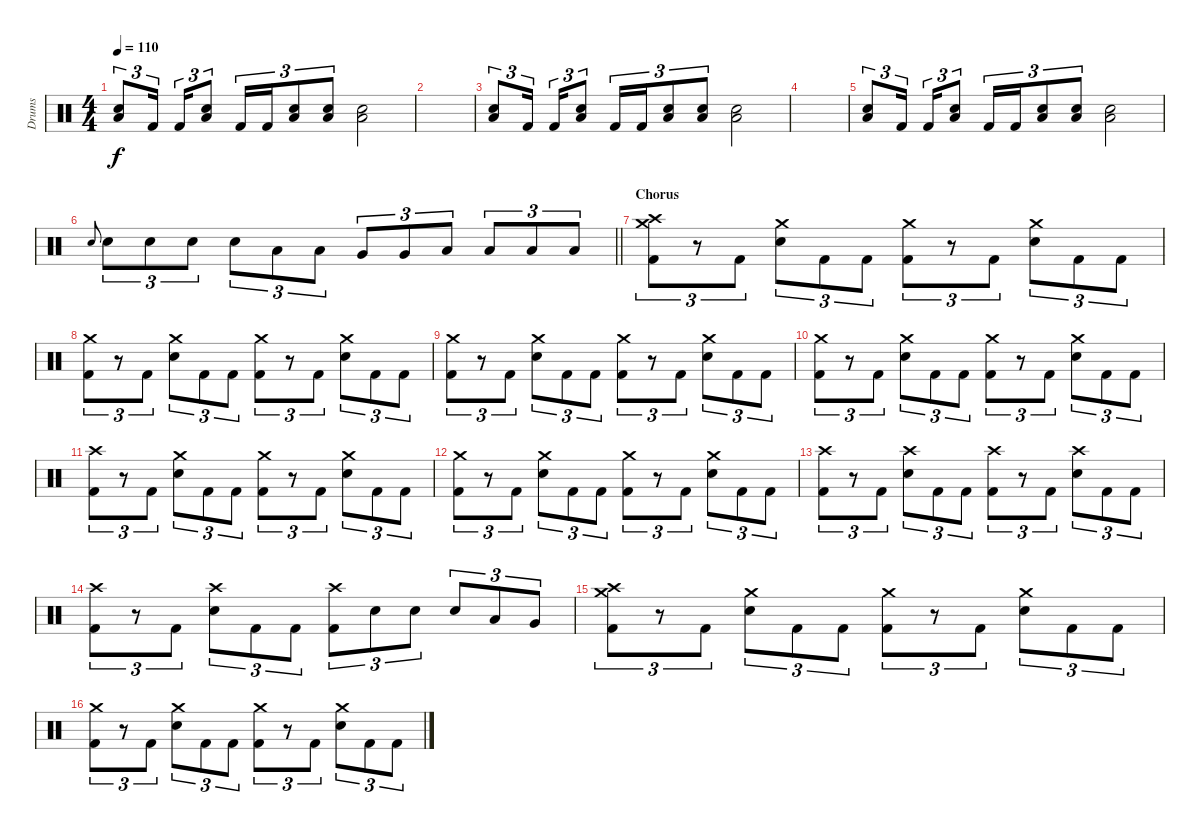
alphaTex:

\track ("Drums" "Drums") {instrument percussion}
\staff {score}
\articulation defaults
\ts (4 4)
\tempo 110
\clef neutral
\ks c
("Low Floor Tom (hit)" "Electric Snare (hit)").8{tu (3 2) dy f} "Kick (hit) 2".16{tu (3 2) beam splitsecondary} "Kick (hit) 2".16{tu (3 2)} ("Low Floor Tom (hit)" "Electric Snare (hit)").8{tu (3 2)} "Kick (hit) 2".16{tu (3 2)} "Kick (hit) 2".16{tu (3 2)} ("Low Floor Tom (hit)" "Electric Snare (hit)").8{tu (3 2)} ("Low Floor Tom (hit)" "Electric Snare (hit)").8{tu (3 2)} ("Low Floor Tom (hit)" "Electric Snare (hit)").2 |
|
("Low Floor Tom (hit)" "Electric Snare (hit)").8{tu (3 2)} "Kick (hit) 2".16{tu (3 2) beam splitsecondary} "Kick (hit) 2".16{tu (3 2)} ("Low Floor Tom (hit)" "Electric Snare (hit)").8{tu (3 2)} "Kick (hit) 2".16{tu (3 2)} "Kick (hit) 2".16{tu (3 2)} ("Low Floor Tom (hit)" "Electric Snare (hit)").8{tu (3 2)} ("Low Floor Tom (hit)" "Electric Snare (hit)").8{tu (3 2)} ("Low Floor Tom (hit)" "Electric Snare (hit)").2 |
|
("Low Floor Tom (hit)" "Electric Snare (hit)").8{tu (3 2)} "Kick (hit) 2".16{tu (3 2) beam splitsecondary} "Kick (hit) 2".16{tu (3 2)} ("Low Floor Tom (hit)" "Electric Snare (hit)").8{tu (3 2)} "Kick (hit) 2".16{tu (3 2)} "Kick (hit) 2".16{tu (3 2)} ("Low Floor Tom (hit)" "Electric Snare (hit)").8{tu (3 2)} ("Low Floor Tom (hit)" "Electric Snare (hit)").8{tu (3 2)} ("Low Floor Tom (hit)" "Electric Snare (hit)").2 |
\barLineRight lightlight "Electric Snare (hit)".8{gr onbeat} "Electric Snare (hit)".8{tu (3 2)} "Electric Snare (hit)".8{tu (3 2)} "Electric Snare (hit)".8{tu (3 2)} "Electric Snare (hit)".8{tu (3 2)} "Low Tom (hit)".8{tu (3 2)} "Low Tom (hit)".8{tu (3 2)} "Very Low Tom (hit)".8{tu (3 2)} "Very Low Tom (hit)".8{tu (3 2)} "Low Floor Tom (hit)".8{tu (3 2)} "Low Floor Tom (hit)".8{tu (3 2)} "Low Floor Tom (hit)".8{tu (3 2)} "Low Floor Tom (hit)".8{tu (3 2)}
|
\section ("" "Chorus")
("Crash medium (hit)" "Crash high (hit)" "Kick (hit) 2").8{tu (3 2)} r.8{tu (3 2)} "Kick (hit) 2".8{tu (3 2)} ("Crash medium (hit)" "Electric Snare (hit)").8{tu (3 2)} "Kick (hit) 2".8{tu (3 2)} "Kick (hit) 2".8{tu (3 2)} ("Crash medium (hit)" "Kick (hit) 2").8{tu (3 2)} r.8{tu (3 2)} "Kick (hit) 2".8{tu (3 2)} ("Crash medium (hit)" "Electric Snare (hit)").8{tu (3 2)} "Kick (hit) 2".8{tu (3 2)} "Kick (hit) 2".8{tu (3 2)} |
("Crash medium (hit)" "Kick (hit) 2").8{tu (3 2)} r.8{tu (3 2)} "Kick (hit) 2".8{tu (3 2)} ("Crash medium (hit)" "Electric Snare (hit)").8{tu (3 2)} "Kick (hit) 2".8{tu (3 2)} "Kick (hit) 2".8{tu (3 2)} ("Crash medium (hit)" "Kick (hit) 2").8{tu (3 2)} r.8{tu (3 2)} "Kick (hit) 2".8{tu (3 2)} ("Crash medium (hit)" "Electric Snare (hit)").8{tu (3 2)} "Kick (hit) 2".8{tu (3 2)} "Kick (hit) 2".8{tu (3 2)} |
("Crash medium (hit)" "Kick (hit) 2").8{tu (3 2)} r.8{tu (3 2)} "Kick (hit) 2".8{tu (3 2)} ("Crash medium (hit)" "Electric Snare (hit)").8{tu (3 2)} "Kick (hit) 2".8{tu (3 2)} "Kick (hit) 2".8{tu (3 2)} ("Crash medium (hit)" "Kick (hit) 2").8{tu (3 2)} r.8{tu (3 2)} "Kick (hit) 2".8{tu (3 2)} ("Crash medium (hit)" "Electric Snare (hit)").8{tu (3 2)} "Kick (hit) 2".8{tu (3 2)} "Kick (hit) 2".8{tu (3 2)} |
("Crash medium (hit)" "Kick (hit) 2").8{tu (3 2)} r.8{tu (3 2)} "Kick (hit) 2".8{tu (3 2)} ("Crash medium (hit)" "Electric Snare (hit)").8{tu (3 2)} "Kick (hit) 2".8{tu (3 2)} "Kick (hit) 2".8{tu (3 2)} ("Crash medium (hit)" "Kick (hit) 2").8{tu (3 2)} r.8{tu (3 2)} "Kick (hit) 2".8{tu (3 2)} ("Crash medium (hit)" "Electric Snare (hit)").8{tu (3 2)} "Kick (hit) 2".8{tu (3 2)} "Kick (hit) 2".8{tu (3 2)} |
("Crash high (hit)" "Kick (hit) 2").8{tu (3 2)} r.8{tu (3 2)} "Kick (hit) 2".8{tu (3 2)} ("Crash medium (hit)" "Electric Snare (hit)").8{tu (3 2)} "Kick (hit) 2".8{tu (3 2)} "Kick (hit) 2".8{tu (3 2)} ("Crash medium (hit)" "Kick (hit) 2").8{tu (3 2)} r.8{tu (3 2)} "Kick (hit) 2".8{tu (3 2)} ("Crash medium (hit)" "Electric Snare (hit)").8{tu (3 2)} "Kick (hit) 2".8{tu (3 2)} "Kick (hit) 2".8{tu (3 2)} |
("Crash medium (hit)" "Kick (hit) 2").8{tu (3 2)} r.8{tu (3 2)} "Kick (hit) 2".8{tu (3 2)} ("Crash medium (hit)" "Electric Snare (hit)").8{tu (3 2)} "Kick (hit) 2".8{tu (3 2)} "Kick (hit) 2".8{tu (3 2)} ("Crash medium (hit)" "Kick (hit) 2").8{tu (3 2)} r.8{tu (3 2)} "Kick (hit) 2".8{tu (3 2)} ("Crash medium (hit)" "Electric Snare (hit)").8{tu (3 2)} "Kick (hit) 2".8{tu (3 2)} "Kick (hit) 2".8{tu (3 2)} |
("Crash high (hit)" "Kick (hit) 2").8{tu (3 2)} r.8{tu (3 2)} "Kick (hit) 2".8{tu (3 2)} ("Crash high (hit)" "Electric Snare (hit)").8{tu (3 2)} "Kick (hit) 2".8{tu (3 2)} "Kick (hit) 2".8{tu (3 2)} ("Crash high (hit)" "Kick (hit) 2").8{tu (3 2)} r.8{tu (3 2)} "Kick (hit) 2".8{tu (3 2)} ("Crash high (hit)" "Electric Snare (hit)").8{tu (3 2)} "Kick (hit) 2".8{tu (3 2)} "Kick (hit) 2".8{tu (3 2)} |
("Crash high (hit)" "Kick (hit) 2").8{tu (3 2)} r.8{tu (3 2)} "Kick (hit) 2".8{tu (3 2)} ("Crash high (hit)" "Electric Snare (hit)").8{tu (3 2)} "Kick (hit) 2".8{tu (3 2)} "Kick (hit) 2".8{tu (3 2)} ("Crash high (hit)" "Kick (hit) 2").8{tu (3 2)} "Electric Snare (hit)".8{tu (3 2)} "Electric Snare (hit)".8{tu (3 2)} "Electric Snare (hit)".8{tu (3 2)} "Low Tom (hit)".8{tu (3 2)} "Very Low Tom (hit)".8{tu (3 2)} |
("Crash medium (hit)" "Crash high (hit)" "Kick (hit) 2").8{tu (3 2)} r.8{tu (3 2)} "Kick (hit) 2".8{tu (3 2)} ("Crash medium (hit)" "Electric Snare (hit)").8{tu (3 2)} "Kick (hit) 2".8{tu (3 2)} "Kick (hit) 2".8{tu (3 2)} ("Crash medium (hit)" "Kick (hit) 2").8{tu (3 2)} r.8{tu (3 2)} "Kick (hit) 2".8{tu (3 2)} ("Crash medium (hit)" "Electric Snare (hit)").8{tu (3 2)} "Kick (hit) 2".8{tu (3 2)} "Kick (hit) 2".8{tu (3 2)} |
("Crash medium (hit)" "Kick (hit) 2").8{tu (3 2)} r.8{tu (3 2)} "Kick (hit) 2".8{tu (3 2)} ("Crash medium (hit)" "Electric Snare (hit)").8{tu (3 2)} "Kick (hit) 2".8{tu (3 2)} "Kick (hit) 2".8{tu (3 2)} ("Crash medium (hit)" "Kick (hit) 2").8{tu (3 2)} r.8{tu (3 2)} "Kick (hit) 2".8{tu (3 2)} ("Crash medium (hit)" "Electric Snare (hit)").8{tu (3 2)} "Kick (hit) 2".8{tu (3 2)} "Kick (hit) 2".8{tu (3 2)}
